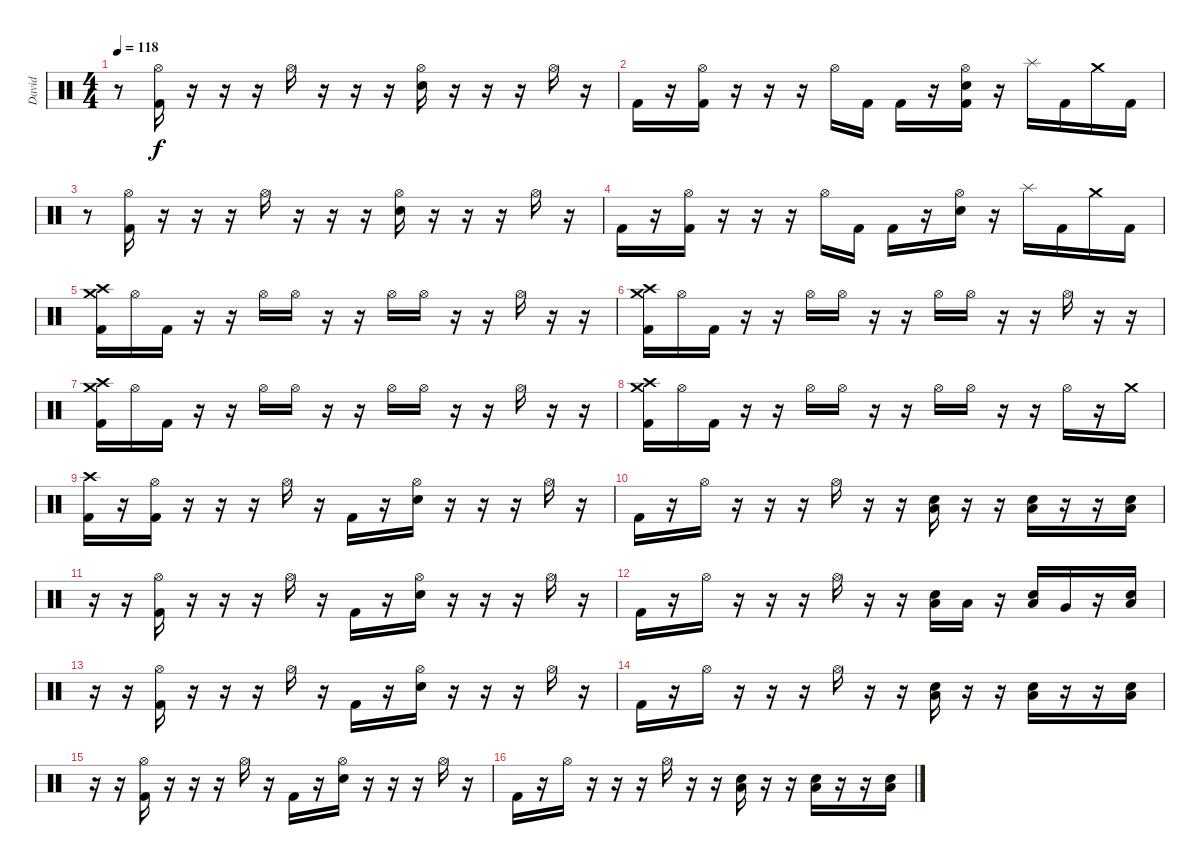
\track ("David" "David") {instrument percussion}
\staff {score}
\articulation defaults
\ts (4 4)
\tempo 118
\clef neutral
\ks c
r.8{dy f} ("Hi-Hat (open)" "Kick (hit) 2").16 r.16 r.16 r.16 "Hi-Hat (open)".16 r.16 r.16 r.16 ("Hi-Hat (open)" "Electric Snare (hit)").16 r.16 r.16 r.16 "Hi-Hat (open)".16 r.16 |
"Kick (hit) 2".16 r.16 ("Hi-Hat (open)" "Kick (hit) 2").16 r.16 r.16 r.16 "Hi-Hat (open)".16 "Kick (hit) 2".16 "Kick (hit) 2".16 r.16 ("Hi-Hat (open)" "Electric Snare (hit)" "Kick (hit) 2").16 r.16 "Splash (hit)".16 "Kick (hit) 2".16 "Crash medium (hit)".16 "Kick (hit) 2".16 |
r.8 ("Hi-Hat (open)" "Kick (hit) 2").16 r.16 r.16 r.16 "Hi-Hat (open)".16 r.16 r.16 r.16 ("Hi-Hat (open)" "Electric Snare (hit)").16 r.16 r.16 r.16 "Hi-Hat (open)".16 r.16 |
"Kick (hit) 2".16 r.16 ("Hi-Hat (open)" "Kick (hit) 2").16 r.16 r.16 r.16 "Hi-Hat (open)".16 "Kick (hit) 2".16 "Kick (hit) 2".16 r.16 ("Hi-Hat (open)" "Electric Snare (hit)").16 r.16 "Splash (hit)".16 "Kick (hit) 2".16 "Crash medium (hit)".16 "Kick (hit) 2".16 |
("Crash high (hit)" "Crash medium (hit)" "Kick (hit) 2").16 "Hi-Hat (open)".16 "Kick (hit) 2".16 r.16 r.16 "Hi-Hat (open)".16 "Hi-Hat (open)".16 r.16 r.16 "Hi-Hat (open)".16 "Hi-Hat (open)".16 r.16 r.16 "Hi-Hat (open)".16 r.16 r.16 |
("Crash high (hit)" "Crash medium (hit)" "Kick (hit) 2").16 "Hi-Hat (open)".16 "Kick (hit) 2".16 r.16 r.16 "Hi-Hat (open)".16 "Hi-Hat (open)".16 r.16 r.16 "Hi-Hat (open)".16 "Hi-Hat (open)".16 r.16 r.16 "Hi-Hat (open)".16 r.16 r.16 |
("Crash high (hit)" "Crash medium (hit)" "Kick (hit) 2").16 "Hi-Hat (open)".16 "Kick (hit) 2".16 r.16 r.16 "Hi-Hat (open)".16 "Hi-Hat (open)".16 r.16 r.16 "Hi-Hat (open)".16 "Hi-Hat (open)".16 r.16 r.16 "Hi-Hat (open)".16 r.16 r.16 |
("Crash high (hit)" "Crash medium (hit)" "Kick (hit) 2").16 "Hi-Hat (open)".16 "Kick (hit) 2".16 r.16 r.16 "Hi-Hat (open)".16 "Hi-Hat (open)".16 r.16 r.16 "Hi-Hat (open)".16 "Hi-Hat (open)".16 r.16 r.16 "Hi-Hat (open)".16 r.16 "Crash medium (hit)".16 |
("Crash high (hit)" "Kick (hit) 2").16 r.16 ("Hi-Hat (open)" "Kick (hit) 2").16 r.16 r.16 r.16 "Hi-Hat (open)".16 r.16 "Kick (hit) 2".16 r.16 ("Hi-Hat (open)" "Electric Snare (hit)").16 r.16 r.16 r.16 "Hi-Hat (open)".16 r.16 |
"Kick (hit) 2".16 r.16 "Hi-Hat (open)".16 r.16 r.16 r.16 "Hi-Hat (open)".16 r.16 r.16 ("Electric Snare (hit)" "Low Floor Tom (hit)").16 r.16 r.16 ("Electric Snare (hit)" "Low Floor Tom (hit)").16 r.16 r.16 ("Electric Snare (hit)" "Low Floor Tom (hit)").16 |
r.16 r.16 ("Hi-Hat (open)" "Kick (hit) 2").16 r.16 r.16 r.16 "Hi-Hat (open)".16 r.16 "Kick (hit) 2".16 r.16 ("Hi-Hat (open)" "Electric Snare (hit)").16 r.16 r.16 r.16 "Hi-Hat (open)".16 r.16 |
"Kick (hit) 2".16 r.16 "Hi-Hat (open)".16 r.16 r.16 r.16 "Hi-Hat (open)".16 r.16 r.16 ("Electric Snare (hit)" "Low Floor Tom (hit)").16 "Low Tom (hit)".16 r.16 ("Electric Snare (hit)" "Low Floor Tom (hit)").16 "Very Low Tom (hit)".16 r.16 ("Electric Snare (hit)" "Low Floor Tom (hit)").16 |
r.16 r.16 ("Hi-Hat (open)" "Kick (hit) 2").16 r.16 r.16 r.16 "Hi-Hat (open)".16 r.16 "Kick (hit) 2".16 r.16 ("Hi-Hat (open)" "Electric Snare (hit)").16 r.16 r.16 r.16 "Hi-Hat (open)".16 r.16 |
"Kick (hit) 2".16 r.16 "Hi-Hat (open)".16 r.16 r.16 r.16 "Hi-Hat (open)".16 r.16 r.16 ("Electric Snare (hit)" "Low Floor Tom (hit)").16 r.16 r.16 ("Electric Snare (hit)" "Low Floor Tom (hit)").16 r.16 r.16 ("Electric Snare (hit)" "Low Floor Tom (hit)").16 |
r.16 r.16 ("Hi-Hat (open)" "Kick (hit) 2").16 r.16 r.16 r.16 "Hi-Hat (open)".16 r.16 "Kick (hit) 2".16 r.16 ("Hi-Hat (open)" "Electric Snare (hit)").16 r.16 r.16 r.16 "Hi-Hat (open)".16 r.16 |
"Kick (hit) 2".16 r.16 "Hi-Hat (open)".16 r.16 r.16 r.16 "Hi-Hat (open)".16 r.16 r.16 ("Electric Snare (hit)" "Low Floor Tom (hit)").16 r.16 r.16 ("Electric Snare (hit)" "Low Floor Tom (hit)").16 r.16 r.16 ("Electric Snare (hit)" "Low Floor Tom (hit)").16
